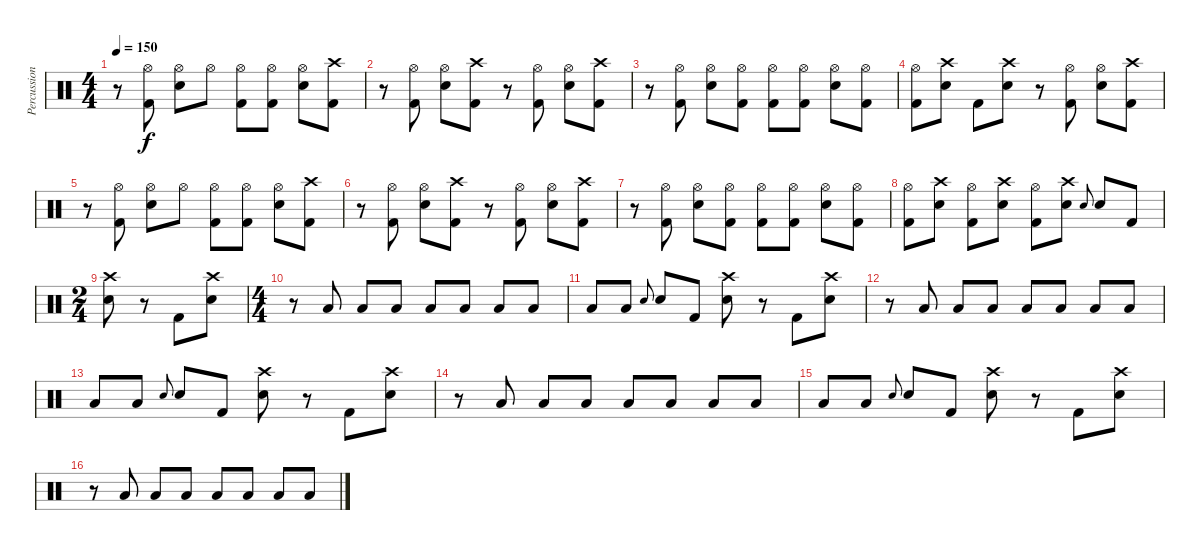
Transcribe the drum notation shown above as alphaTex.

\track ("Percussion" "Percussion") {instrument percussion}
\staff {score}
\articulation defaults
\ts (4 4)
\tempo 150
\clef neutral
\ks c
r.8{dy f} ("Hi-Hat (open)" "Kick (hit) 2").8 ("Hi-Hat (open)" "Electric Snare (hit)").8 "Hi-Hat (open)".8 ("Hi-Hat (open)" "Kick (hit) 2").8 ("Hi-Hat (open)" "Kick (hit) 2").8 ("Hi-Hat (open)" "Electric Snare (hit)").8 ("Crash high (hit)" "Kick (hit) 2").8 |
r.8 ("Hi-Hat (open)" "Kick (hit) 2").8 ("Hi-Hat (open)" "Electric Snare (hit)").8 ("Crash high (hit)" "Kick (hit) 2").8 r.8 ("Hi-Hat (open)" "Kick (hit) 2").8 ("Hi-Hat (open)" "Electric Snare (hit)").8 ("Crash high (hit)" "Kick (hit) 2").8 |
r.8 ("Hi-Hat (open)" "Kick (hit) 2").8 ("Hi-Hat (open)" "Electric Snare (hit)").8 ("Hi-Hat (open)" "Kick (hit) 2").8 ("Hi-Hat (open)" "Kick (hit) 2").8 ("Hi-Hat (open)" "Kick (hit) 2").8 ("Hi-Hat (open)" "Electric Snare (hit)").8 ("Hi-Hat (open)" "Kick (hit) 2").8 |
("Hi-Hat (open)" "Kick (hit) 2").8 ("Crash high (hit)" "Electric Snare (hit)").8 "Kick (hit) 2".8 ("Crash high (hit)" "Electric Snare (hit)").8 r.8 ("Hi-Hat (open)" "Kick (hit) 2").8 ("Hi-Hat (open)" "Electric Snare (hit)").8 ("Crash high (hit)" "Kick (hit) 2").8 |
r.8 ("Hi-Hat (open)" "Kick (hit) 2").8 ("Hi-Hat (open)" "Electric Snare (hit)").8 "Hi-Hat (open)".8 ("Hi-Hat (open)" "Kick (hit) 2").8 ("Hi-Hat (open)" "Kick (hit) 2").8 ("Hi-Hat (open)" "Electric Snare (hit)").8 ("Crash high (hit)" "Kick (hit) 2").8 |
r.8 ("Hi-Hat (open)" "Kick (hit) 2").8 ("Hi-Hat (open)" "Electric Snare (hit)").8 ("Crash high (hit)" "Kick (hit) 2").8 r.8 ("Hi-Hat (open)" "Kick (hit) 2").8 ("Hi-Hat (open)" "Electric Snare (hit)").8 ("Crash high (hit)" "Kick (hit) 2").8 |
r.8 ("Hi-Hat (open)" "Kick (hit) 2").8 ("Hi-Hat (open)" "Electric Snare (hit)").8 ("Hi-Hat (open)" "Kick (hit) 2").8 ("Hi-Hat (open)" "Kick (hit) 2").8 ("Hi-Hat (open)" "Kick (hit) 2").8 ("Hi-Hat (open)" "Electric Snare (hit)").8 ("Hi-Hat (open)" "Kick (hit) 2").8 |
("Hi-Hat (open)" "Kick (hit) 2").8 ("Crash high (hit)" "Electric Snare (hit)").8 ("Hi-Hat (open)" "Kick (hit) 2").8 ("Crash high (hit)" "Electric Snare (hit)").8 ("Hi-Hat (open)" "Kick (hit) 2").8 ("Crash high (hit)" "Electric Snare (hit)").8 "Electric Snare (hit)".8{gr onbeat} "Electric Snare (hit)".8 "Kick (hit) 2".8 |
\ts (2 4)
("Crash high (hit)" "Electric Snare (hit)").8 r.8 "Kick (hit) 2".8 ("Crash high (hit)" "Electric Snare (hit)").8 |
\ts (4 4)
r.8 "Low Floor Tom (hit)".8 "Low Floor Tom (hit)".8 "Low Floor Tom (hit)".8 "Low Floor Tom (hit)".8 "Low Floor Tom (hit)".8 "Low Floor Tom (hit)".8 "Low Floor Tom (hit)".8 |
"Low Floor Tom (hit)".8 "Low Floor Tom (hit)".8 "Electric Snare (hit)".8{gr onbeat} "Electric Snare (hit)".8 "Kick (hit) 2".8 ("Crash high (hit)" "Electric Snare (hit)").8 r.8 "Kick (hit) 2".8 ("Crash high (hit)" "Electric Snare (hit)").8 |
r.8 "Low Floor Tom (hit)".8 "Low Floor Tom (hit)".8 "Low Floor Tom (hit)".8 "Low Floor Tom (hit)".8 "Low Floor Tom (hit)".8 "Low Floor Tom (hit)".8 "Low Floor Tom (hit)".8 |
"Low Floor Tom (hit)".8 "Low Floor Tom (hit)".8 "Electric Snare (hit)".8{gr onbeat} "Electric Snare (hit)".8 "Kick (hit) 2".8 ("Crash high (hit)" "Electric Snare (hit)").8 r.8 "Kick (hit) 2".8 ("Crash high (hit)" "Electric Snare (hit)").8 |
r.8 "Low Floor Tom (hit)".8 "Low Floor Tom (hit)".8 "Low Floor Tom (hit)".8 "Low Floor Tom (hit)".8 "Low Floor Tom (hit)".8 "Low Floor Tom (hit)".8 "Low Floor Tom (hit)".8 |
"Low Floor Tom (hit)".8 "Low Floor Tom (hit)".8 "Electric Snare (hit)".8{gr onbeat} "Electric Snare (hit)".8 "Kick (hit) 2".8 ("Crash high (hit)" "Electric Snare (hit)").8 r.8 "Kick (hit) 2".8 ("Crash high (hit)" "Electric Snare (hit)").8 |
r.8 "Low Floor Tom (hit)".8 "Low Floor Tom (hit)".8 "Low Floor Tom (hit)".8 "Low Floor Tom (hit)".8 "Low Floor Tom (hit)".8 "Low Floor Tom (hit)".8 "Low Floor Tom (hit)".8
